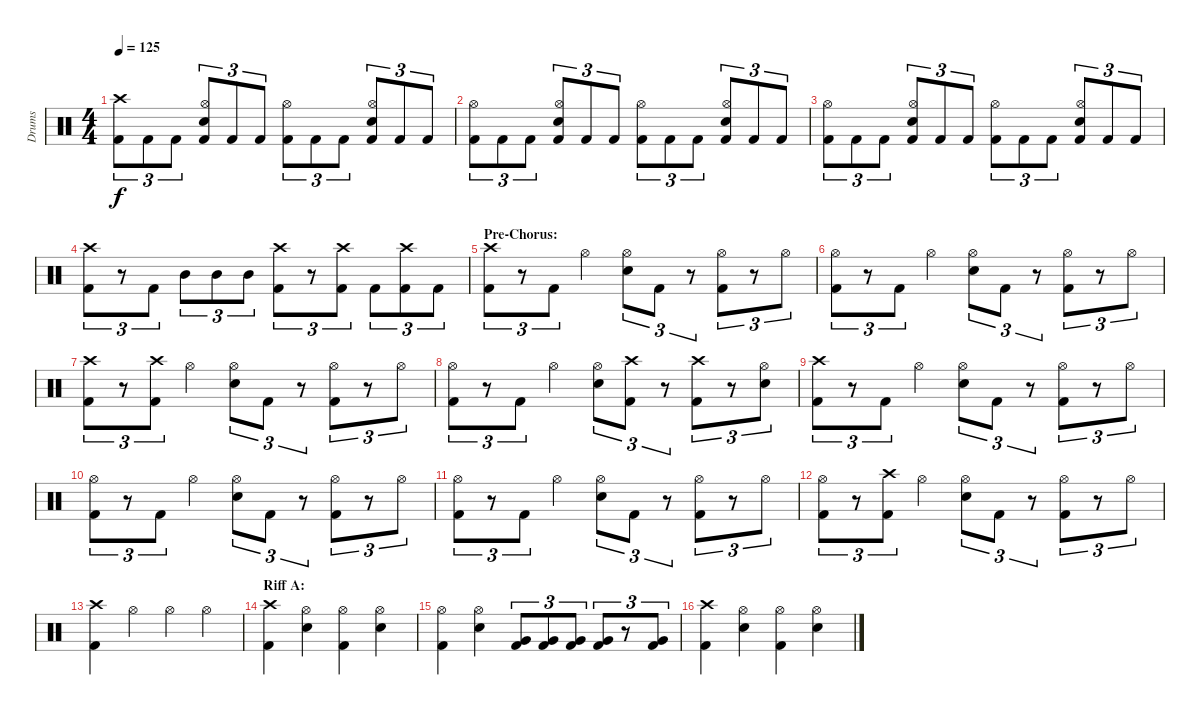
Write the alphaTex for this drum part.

\track ("Drums" "Drums") {instrument percussion}
\staff {score}
\articulation defaults
\ts (4 4)
\tempo 125
\clef neutral
\ks c
("Crash high (hit)" "Kick (hit) 2").8{tu (3 2) dy f} "Kick (hit) 2".8{tu (3 2)} "Kick (hit) 2".8{tu (3 2)} ("Hi-Hat (open)" "Electric Snare (hit)" "Kick (hit) 2").8{tu (3 2)} "Kick (hit) 2".8{tu (3 2)} "Kick (hit) 2".8{tu (3 2)} ("Hi-Hat (open)" "Kick (hit) 2").8{tu (3 2)} "Kick (hit) 2".8{tu (3 2)} "Kick (hit) 2".8{tu (3 2)} ("Hi-Hat (open)" "Electric Snare (hit)" "Kick (hit) 2").8{tu (3 2)} "Kick (hit) 2".8{tu (3 2)} "Kick (hit) 2".8{tu (3 2)} |
("Hi-Hat (open)" "Kick (hit) 2").8{tu (3 2)} "Kick (hit) 2".8{tu (3 2)} "Kick (hit) 2".8{tu (3 2)} ("Hi-Hat (open)" "Electric Snare (hit)" "Kick (hit) 2").8{tu (3 2)} "Kick (hit) 2".8{tu (3 2)} "Kick (hit) 2".8{tu (3 2)} ("Hi-Hat (open)" "Kick (hit) 2").8{tu (3 2)} "Kick (hit) 2".8{tu (3 2)} "Kick (hit) 2".8{tu (3 2)} ("Hi-Hat (open)" "Electric Snare (hit)" "Kick (hit) 2").8{tu (3 2)} "Kick (hit) 2".8{tu (3 2)} "Kick (hit) 2".8{tu (3 2)} |
("Hi-Hat (open)" "Kick (hit) 2").8{tu (3 2)} "Kick (hit) 2".8{tu (3 2)} "Kick (hit) 2".8{tu (3 2)} ("Hi-Hat (open)" "Electric Snare (hit)" "Kick (hit) 2").8{tu (3 2)} "Kick (hit) 2".8{tu (3 2)} "Kick (hit) 2".8{tu (3 2)} ("Hi-Hat (open)" "Kick (hit) 2").8{tu (3 2)} "Kick (hit) 2".8{tu (3 2)} "Kick (hit) 2".8{tu (3 2)} ("Hi-Hat (open)" "Electric Snare (hit)" "Kick (hit) 2").8{tu (3 2)} "Kick (hit) 2".8{tu (3 2)} "Kick (hit) 2".8{tu (3 2)} |
("Crash high (hit)" "Kick (hit) 2").8{tu (3 2)} r.8{tu (3 2)} "Kick (hit) 2".8{tu (3 2)} "Mid Tom (hit)".8{tu (3 2)} "Mid Tom (hit)".8{tu (3 2)} "Mid Tom (hit)".8{tu (3 2)} ("Crash high (hit)" "Kick (hit) 2").8{tu (3 2)} r.8{tu (3 2)} ("Crash high (hit)" "Kick (hit) 2").8{tu (3 2)} "Kick (hit) 2".8{tu (3 2)} ("Crash high (hit)" "Kick (hit) 2").8{tu (3 2)} "Kick (hit) 2".8{tu (3 2)} |
\section ("" "Pre-Chorus:")
("Crash high (hit)" "Kick (hit) 2").8{tu (3 2)} r.8{tu (3 2)} "Kick (hit) 2".8{tu (3 2)} "Hi-Hat (open)".4 ("Hi-Hat (open)" "Electric Snare (hit)").8{tu (3 2)} "Kick (hit) 2".8{tu (3 2)} r.8{tu (3 2)} ("Hi-Hat (open)" "Kick (hit) 2").8{tu (3 2)} r.8{tu (3 2)} "Hi-Hat (open)".8{tu (3 2)} |
("Hi-Hat (open)" "Kick (hit) 2").8{tu (3 2)} r.8{tu (3 2)} "Kick (hit) 2".8{tu (3 2)} "Hi-Hat (open)".4 ("Hi-Hat (open)" "Electric Snare (hit)").8{tu (3 2)} "Kick (hit) 2".8{tu (3 2)} r.8{tu (3 2)} ("Hi-Hat (open)" "Kick (hit) 2").8{tu (3 2)} r.8{tu (3 2)} "Hi-Hat (open)".8{tu (3 2)} |
("Crash high (hit)" "Kick (hit) 2").8{tu (3 2)} r.8{tu (3 2)} ("Crash high (hit)" "Kick (hit) 2").8{tu (3 2)} "Hi-Hat (open)".4 ("Hi-Hat (open)" "Electric Snare (hit)").8{tu (3 2)} "Kick (hit) 2".8{tu (3 2)} r.8{tu (3 2)} ("Hi-Hat (open)" "Kick (hit) 2").8{tu (3 2)} r.8{tu (3 2)} "Hi-Hat (open)".8{tu (3 2)} |
("Hi-Hat (open)" "Kick (hit) 2").8{tu (3 2)} r.8{tu (3 2)} "Kick (hit) 2".8{tu (3 2)} "Hi-Hat (open)".4 ("Hi-Hat (open)" "Electric Snare (hit)").8{tu (3 2)} ("Crash high (hit)" "Kick (hit) 2").8{tu (3 2)} r.8{tu (3 2)} ("Crash high (hit)" "Kick (hit) 2").8{tu (3 2)} r.8{tu (3 2)} ("Hi-Hat (open)" "Electric Snare (hit)").8{tu (3 2)} |
("Crash high (hit)" "Kick (hit) 2").8{tu (3 2)} r.8{tu (3 2)} "Kick (hit) 2".8{tu (3 2)} "Hi-Hat (open)".4 ("Hi-Hat (open)" "Electric Snare (hit)").8{tu (3 2)} "Kick (hit) 2".8{tu (3 2)} r.8{tu (3 2)} ("Hi-Hat (open)" "Kick (hit) 2").8{tu (3 2)} r.8{tu (3 2)} "Hi-Hat (open)".8{tu (3 2)} |
("Hi-Hat (open)" "Kick (hit) 2").8{tu (3 2)} r.8{tu (3 2)} "Kick (hit) 2".8{tu (3 2)} "Hi-Hat (open)".4 ("Hi-Hat (open)" "Electric Snare (hit)").8{tu (3 2)} "Kick (hit) 2".8{tu (3 2)} r.8{tu (3 2)} ("Hi-Hat (open)" "Kick (hit) 2").8{tu (3 2)} r.8{tu (3 2)} "Hi-Hat (open)".8{tu (3 2)} |
("Hi-Hat (open)" "Kick (hit) 2").8{tu (3 2)} r.8{tu (3 2)} "Kick (hit) 2".8{tu (3 2)} "Hi-Hat (open)".4 ("Hi-Hat (open)" "Electric Snare (hit)").8{tu (3 2)} "Kick (hit) 2".8{tu (3 2)} r.8{tu (3 2)} ("Hi-Hat (open)" "Kick (hit) 2").8{tu (3 2)} r.8{tu (3 2)} "Hi-Hat (open)".8{tu (3 2)} |
("Hi-Hat (open)" "Kick (hit) 2").8{tu (3 2)} r.8{tu (3 2)} ("Crash high (hit)" "Kick (hit) 2").8{tu (3 2)} "Hi-Hat (open)".4 ("Hi-Hat (open)" "Electric Snare (hit)").8{tu (3 2)} "Kick (hit) 2".8{tu (3 2)} r.8{tu (3 2)} ("Hi-Hat (open)" "Kick (hit) 2").8{tu (3 2)} r.8{tu (3 2)} "Hi-Hat (open)".8{tu (3 2)} |
("Crash high (hit)" "Kick (hit) 2").4 "Hi-Hat (open)".4 "Hi-Hat (open)".4 "Hi-Hat (open)".4 |
\section ("" "Riff A:")
("Crash high (hit)" "Kick (hit) 2").4 ("Hi-Hat (open)" "Electric Snare (hit)").4 ("Hi-Hat (open)" "Kick (hit) 2").4 ("Hi-Hat (open)" "Electric Snare (hit)").4 |
("Hi-Hat (open)" "Kick (hit) 2").4 ("Hi-Hat (open)" "Electric Snare (hit)").4 ("Very Low Tom (hit)" "Kick (hit) 2").8{tu (3 2)} ("Very Low Tom (hit)" "Kick (hit) 2").8{tu (3 2)} ("Very Low Tom (hit)" "Kick (hit) 2").8{tu (3 2)} ("Very Low Tom (hit)" "Kick (hit) 2").8{tu (3 2)} r.8{tu (3 2)} ("Very Low Tom (hit)" "Kick (hit) 2").8{tu (3 2)} |
("Crash high (hit)" "Kick (hit) 2").4 ("Hi-Hat (open)" "Electric Snare (hit)").4 ("Hi-Hat (open)" "Kick (hit) 2").4 ("Hi-Hat (open)" "Electric Snare (hit)").4
